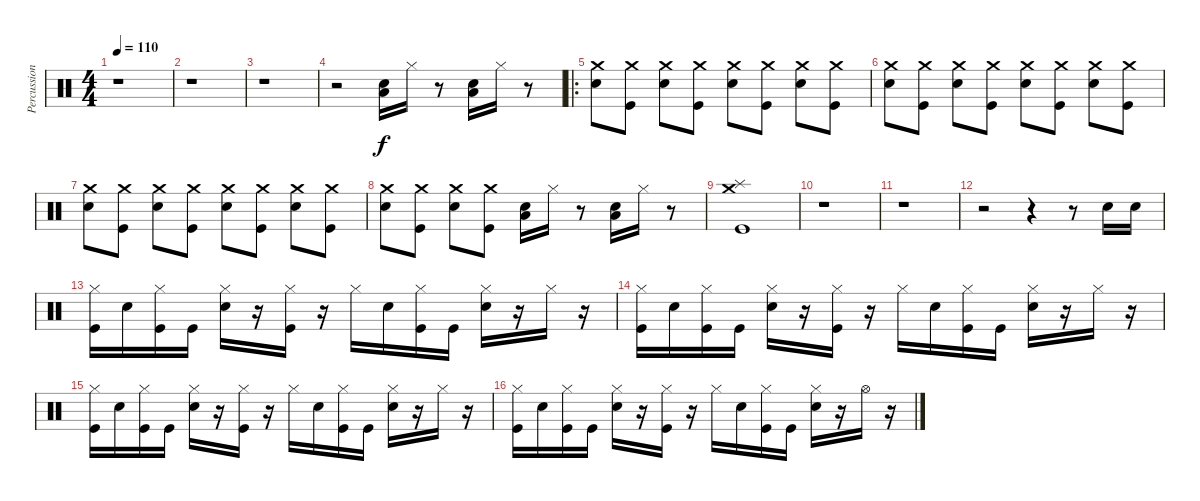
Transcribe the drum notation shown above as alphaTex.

\track ("Percussion" "Percussion") {instrument percussion}
\staff {score}
\articulation defaults
\ts (4 4)
\tempo 110
\clef neutral
\ks c
r.1{dy f} |
r.1 |
r.1 |
r.2 ("Low Floor Tom (hit)" "Electric Snare (hit)").16 "Hi-Hat (closed)".16 r.8 ("Low Floor Tom (hit)" "Electric Snare (hit)").16 "Hi-Hat (closed)".16 r.8 |
\ro
("Crash medium (hit)" "Electric Snare (hit)").8 ("Crash medium (hit)" "Kick (hit)").8 ("Crash medium (hit)" "Electric Snare (hit)").8 ("Crash medium (hit)" "Kick (hit)").8 ("Crash medium (hit)" "Electric Snare (hit)").8 ("Crash medium (hit)" "Kick (hit)").8 ("Crash medium (hit)" "Electric Snare (hit)").8 ("Crash medium (hit)" "Kick (hit)").8 |
("Crash medium (hit)" "Electric Snare (hit)").8 ("Crash medium (hit)" "Kick (hit)").8 ("Crash medium (hit)" "Electric Snare (hit)").8 ("Crash medium (hit)" "Kick (hit)").8 ("Crash medium (hit)" "Electric Snare (hit)").8 ("Crash medium (hit)" "Kick (hit)").8 ("Crash medium (hit)" "Electric Snare (hit)").8 ("Crash medium (hit)" "Kick (hit)").8 |
("Crash medium (hit)" "Electric Snare (hit)").8 ("Crash medium (hit)" "Kick (hit)").8 ("Crash medium (hit)" "Electric Snare (hit)").8 ("Crash medium (hit)" "Kick (hit)").8 ("Crash medium (hit)" "Electric Snare (hit)").8 ("Crash medium (hit)" "Kick (hit)").8 ("Crash medium (hit)" "Electric Snare (hit)").8 ("Crash medium (hit)" "Kick (hit)").8 |
("Crash medium (hit)" "Electric Snare (hit)").8 ("Crash medium (hit)" "Kick (hit)").8 ("Crash medium (hit)" "Electric Snare (hit)").8 ("Crash medium (hit)" "Kick (hit)").8 ("Electric Snare (hit)" "Low Floor Tom (hit)").16 "Hi-Hat (closed)".16 r.8 ("Low Floor Tom (hit)" "Electric Snare (hit)").16 "Hi-Hat (closed)".16 r.8 |
("Crash medium (hit)" "Splash (hit)" "Kick (hit)").1 |
r.1 |
r.1 |
r.2 r.4 r.8 "Electric Snare (hit)".16 "Electric Snare (hit)".16 |
("Hi-Hat (closed)" "Kick (hit)").16 "Electric Snare (hit)".16 ("Hi-Hat (closed)" "Kick (hit)").16 "Kick (hit)".16 ("Hi-Hat (closed)" "Electric Snare (hit)").16 r.16 ("Hi-Hat (closed)" "Kick (hit)").16 r.16 "Hi-Hat (closed)".16 "Electric Snare (hit)".16 ("Hi-Hat (closed)" "Kick (hit)").16 "Kick (hit)".16 ("Hi-Hat (closed)" "Electric Snare (hit)").16 r.16 "Hi-Hat (closed)".16 r.16 |
("Hi-Hat (closed)" "Kick (hit)").16 "Electric Snare (hit)".16 ("Hi-Hat (closed)" "Kick (hit)").16 "Kick (hit)".16 ("Hi-Hat (closed)" "Electric Snare (hit)").16 r.16 ("Hi-Hat (closed)" "Kick (hit)").16 r.16 "Hi-Hat (closed)".16 "Electric Snare (hit)".16 ("Hi-Hat (closed)" "Kick (hit)").16 "Kick (hit)".16 ("Hi-Hat (closed)" "Electric Snare (hit)").16 r.16 "Hi-Hat (closed)".16 r.16 |
("Hi-Hat (closed)" "Kick (hit)").16 "Electric Snare (hit)".16 ("Hi-Hat (closed)" "Kick (hit)").16 "Kick (hit)".16 ("Hi-Hat (closed)" "Electric Snare (hit)").16 r.16 ("Hi-Hat (closed)" "Kick (hit)").16 r.16 "Hi-Hat (closed)".16 "Electric Snare (hit)".16 ("Hi-Hat (closed)" "Kick (hit)").16 "Kick (hit)".16 ("Hi-Hat (closed)" "Electric Snare (hit)").16 r.16 "Hi-Hat (closed)".16 r.16 |
("Hi-Hat (closed)" "Kick (hit)").16 "Electric Snare (hit)".16 ("Hi-Hat (closed)" "Kick (hit)").16 "Kick (hit)".16 ("Hi-Hat (closed)" "Electric Snare (hit)").16 r.16 ("Hi-Hat (closed)" "Kick (hit)").16 r.16 "Hi-Hat (closed)".16 "Electric Snare (hit)".16 ("Hi-Hat (closed)" "Kick (hit)").16 "Kick (hit)".16 ("Hi-Hat (closed)" "Electric Snare (hit)").16 r.16 "Hi-Hat (open)".16 r.16
